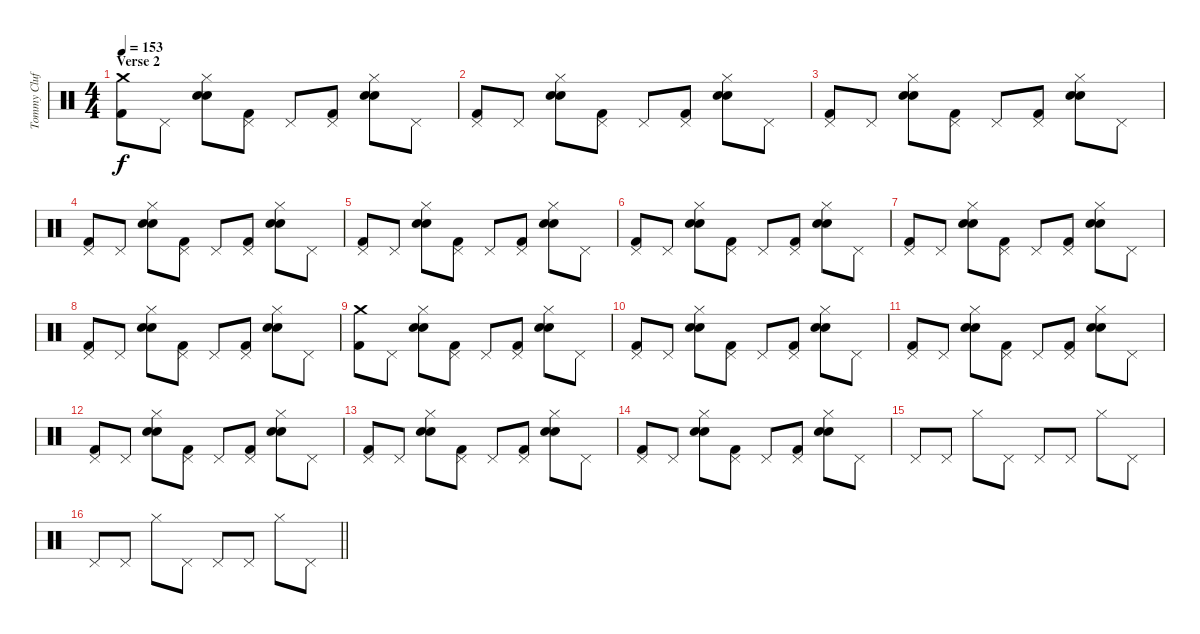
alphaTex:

\track ("Tommy Clufetos" "Tommy Cluf") {instrument percussion}
\staff {score}
\articulation defaults
\ts (4 4)
\section ("" "Verse 2")
\tempo 153
\clef neutral
\ks c
("Crash medium (hit)" "Kick (hit) 2").8{dy f} "Pedal Hi-Hat (hit)".8 ("Hi-Hat (closed)" "Electric Snare (hit)" "Snare (hit) 2").8 ("Pedal Hi-Hat (hit)" "Kick (hit) 2").8 "Pedal Hi-Hat (hit)".8 ("Pedal Hi-Hat (hit)" "Kick (hit) 2").8 ("Hi-Hat (closed)" "Electric Snare (hit)" "Snare (hit) 2").8 "Pedal Hi-Hat (hit)".8 |
("Pedal Hi-Hat (hit)" "Kick (hit) 2").8 "Pedal Hi-Hat (hit)".8 ("Hi-Hat (closed)" "Electric Snare (hit)" "Snare (hit) 2").8 ("Pedal Hi-Hat (hit)" "Kick (hit) 2").8 "Pedal Hi-Hat (hit)".8 ("Pedal Hi-Hat (hit)" "Kick (hit) 2").8 ("Hi-Hat (closed)" "Electric Snare (hit)" "Snare (hit) 2").8 "Pedal Hi-Hat (hit)".8 |
("Pedal Hi-Hat (hit)" "Kick (hit) 2").8 "Pedal Hi-Hat (hit)".8 ("Hi-Hat (closed)" "Electric Snare (hit)" "Snare (hit) 2").8 ("Pedal Hi-Hat (hit)" "Kick (hit) 2").8 "Pedal Hi-Hat (hit)".8 ("Pedal Hi-Hat (hit)" "Kick (hit) 2").8 ("Hi-Hat (closed)" "Electric Snare (hit)" "Snare (hit) 2").8 "Pedal Hi-Hat (hit)".8 |
("Pedal Hi-Hat (hit)" "Kick (hit) 2").8 "Pedal Hi-Hat (hit)".8 ("Hi-Hat (closed)" "Electric Snare (hit)" "Snare (hit) 2").8 ("Pedal Hi-Hat (hit)" "Kick (hit) 2").8 "Pedal Hi-Hat (hit)".8 ("Pedal Hi-Hat (hit)" "Kick (hit) 2").8 ("Hi-Hat (closed)" "Electric Snare (hit)" "Snare (hit) 2").8 "Pedal Hi-Hat (hit)".8 |
("Pedal Hi-Hat (hit)" "Kick (hit) 2").8 "Pedal Hi-Hat (hit)".8 ("Hi-Hat (closed)" "Electric Snare (hit)" "Snare (hit) 2").8 ("Pedal Hi-Hat (hit)" "Kick (hit) 2").8 "Pedal Hi-Hat (hit)".8 ("Pedal Hi-Hat (hit)" "Kick (hit) 2").8 ("Hi-Hat (closed)" "Electric Snare (hit)" "Snare (hit) 2").8 "Pedal Hi-Hat (hit)".8 |
("Pedal Hi-Hat (hit)" "Kick (hit) 2").8 "Pedal Hi-Hat (hit)".8 ("Hi-Hat (closed)" "Electric Snare (hit)" "Snare (hit) 2").8 ("Pedal Hi-Hat (hit)" "Kick (hit) 2").8 "Pedal Hi-Hat (hit)".8 ("Pedal Hi-Hat (hit)" "Kick (hit) 2").8 ("Hi-Hat (closed)" "Electric Snare (hit)" "Snare (hit) 2").8 "Pedal Hi-Hat (hit)".8 |
("Pedal Hi-Hat (hit)" "Kick (hit) 2").8 "Pedal Hi-Hat (hit)".8 ("Hi-Hat (closed)" "Electric Snare (hit)" "Snare (hit) 2").8 ("Pedal Hi-Hat (hit)" "Kick (hit) 2").8 "Pedal Hi-Hat (hit)".8 ("Pedal Hi-Hat (hit)" "Kick (hit) 2").8 ("Hi-Hat (closed)" "Electric Snare (hit)" "Snare (hit) 2").8 "Pedal Hi-Hat (hit)".8 |
("Pedal Hi-Hat (hit)" "Kick (hit) 2").8 "Pedal Hi-Hat (hit)".8 ("Hi-Hat (closed)" "Electric Snare (hit)" "Snare (hit) 2").8 ("Pedal Hi-Hat (hit)" "Kick (hit) 2").8 "Pedal Hi-Hat (hit)".8 ("Pedal Hi-Hat (hit)" "Kick (hit) 2").8 ("Hi-Hat (closed)" "Electric Snare (hit)" "Snare (hit) 2").8 "Pedal Hi-Hat (hit)".8 |
("Crash medium (hit)" "Kick (hit) 2").8 "Pedal Hi-Hat (hit)".8 ("Hi-Hat (closed)" "Electric Snare (hit)" "Snare (hit) 2").8 ("Pedal Hi-Hat (hit)" "Kick (hit) 2").8 "Pedal Hi-Hat (hit)".8 ("Pedal Hi-Hat (hit)" "Kick (hit) 2").8 ("Hi-Hat (closed)" "Electric Snare (hit)" "Snare (hit) 2").8 "Pedal Hi-Hat (hit)".8 |
("Pedal Hi-Hat (hit)" "Kick (hit) 2").8 "Pedal Hi-Hat (hit)".8 ("Hi-Hat (closed)" "Electric Snare (hit)" "Snare (hit) 2").8 ("Pedal Hi-Hat (hit)" "Kick (hit) 2").8 "Pedal Hi-Hat (hit)".8 ("Pedal Hi-Hat (hit)" "Kick (hit) 2").8 ("Hi-Hat (closed)" "Electric Snare (hit)" "Snare (hit) 2").8 "Pedal Hi-Hat (hit)".8 |
("Pedal Hi-Hat (hit)" "Kick (hit) 2").8 "Pedal Hi-Hat (hit)".8 ("Hi-Hat (closed)" "Electric Snare (hit)" "Snare (hit) 2").8 ("Pedal Hi-Hat (hit)" "Kick (hit) 2").8 "Pedal Hi-Hat (hit)".8 ("Pedal Hi-Hat (hit)" "Kick (hit) 2").8 ("Hi-Hat (closed)" "Electric Snare (hit)" "Snare (hit) 2").8 "Pedal Hi-Hat (hit)".8 |
("Pedal Hi-Hat (hit)" "Kick (hit) 2").8 "Pedal Hi-Hat (hit)".8 ("Hi-Hat (closed)" "Electric Snare (hit)" "Snare (hit) 2").8 ("Pedal Hi-Hat (hit)" "Kick (hit) 2").8 "Pedal Hi-Hat (hit)".8 ("Pedal Hi-Hat (hit)" "Kick (hit) 2").8 ("Hi-Hat (closed)" "Electric Snare (hit)" "Snare (hit) 2").8 "Pedal Hi-Hat (hit)".8 |
("Pedal Hi-Hat (hit)" "Kick (hit) 2").8 "Pedal Hi-Hat (hit)".8 ("Hi-Hat (closed)" "Electric Snare (hit)" "Snare (hit) 2").8 ("Pedal Hi-Hat (hit)" "Kick (hit) 2").8 "Pedal Hi-Hat (hit)".8 ("Pedal Hi-Hat (hit)" "Kick (hit) 2").8 ("Hi-Hat (closed)" "Electric Snare (hit)" "Snare (hit) 2").8 "Pedal Hi-Hat (hit)".8 |
("Pedal Hi-Hat (hit)" "Kick (hit) 2").8 "Pedal Hi-Hat (hit)".8 ("Hi-Hat (closed)" "Electric Snare (hit)" "Snare (hit) 2").8 ("Pedal Hi-Hat (hit)" "Kick (hit) 2").8 "Pedal Hi-Hat (hit)".8 ("Pedal Hi-Hat (hit)" "Kick (hit) 2").8 ("Hi-Hat (closed)" "Electric Snare (hit)" "Snare (hit) 2").8 "Pedal Hi-Hat (hit)".8 |
"Pedal Hi-Hat (hit)".8 "Pedal Hi-Hat (hit)".8 "Hi-Hat (closed)".8 "Pedal Hi-Hat (hit)".8 "Pedal Hi-Hat (hit)".8 "Pedal Hi-Hat (hit)".8 "Hi-Hat (closed)".8 "Pedal Hi-Hat (hit)".8 |
\barLineRight lightlight "Pedal Hi-Hat (hit)".8 "Pedal Hi-Hat (hit)".8 "Hi-Hat (closed)".8 "Pedal Hi-Hat (hit)".8 "Pedal Hi-Hat (hit)".8 "Pedal Hi-Hat (hit)".8 "Hi-Hat (closed)".8 "Pedal Hi-Hat (hit)".8
